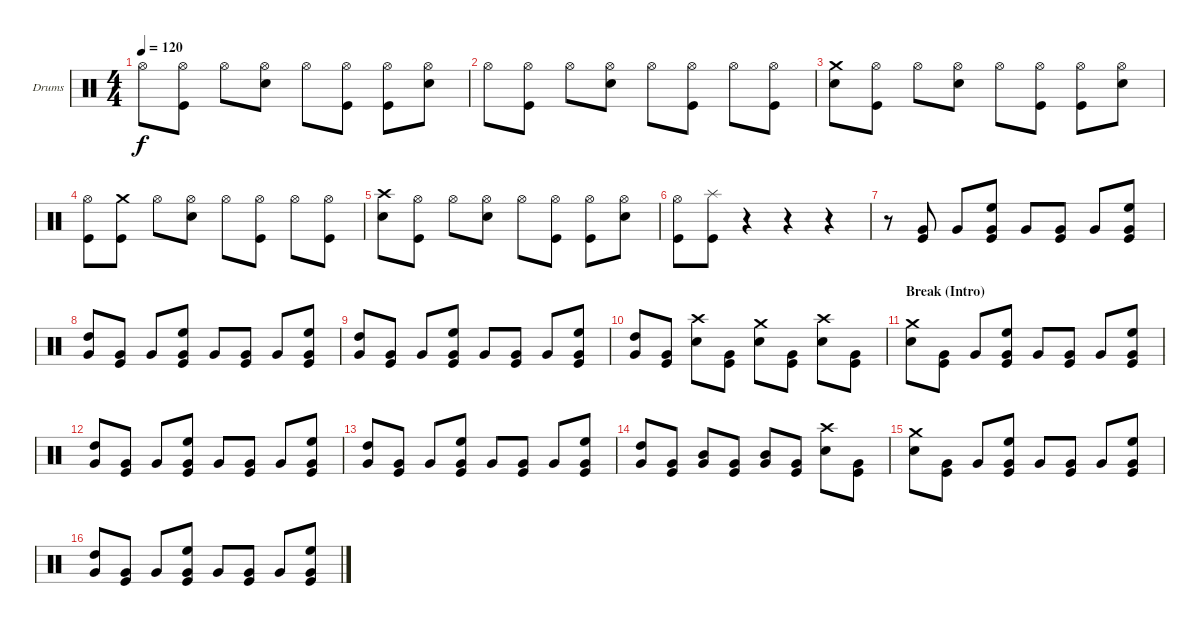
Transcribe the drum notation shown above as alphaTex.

\bracketExtendMode groupsimilarinstruments
\firstSystemTrackNameOrientation horizontal
\otherSystemsTrackNameOrientation horizontal
\track ("Drumkit" "Drums") {instrument percussion}
\staff {score}
\articulation defaults
\ts (4 4)
\tempo 120
\clef neutral
\ks c "Hi-Hat (open)".8{dy f}
("Hi-Hat (open)" "Kick (hit)").8 "Hi-Hat (open)".8 ("Hi-Hat (open)" "Snare (hit) 2").8 "Hi-Hat (open)".8 ("Hi-Hat (open)" "Kick (hit)").8 ("Hi-Hat (open)" "Kick (hit)").8 ("Hi-Hat (open)" "Snare (hit) 2").8 |
"Hi-Hat (open)".8 ("Hi-Hat (open)" "Kick (hit)").8 "Hi-Hat (open)".8 ("Hi-Hat (open)" "Snare (hit) 2").8 "Hi-Hat (open)".8 ("Hi-Hat (open)" "Kick (hit)").8 "Hi-Hat (open)".8 ("Hi-Hat (open)" "Kick (hit)").8 |
("Crash medium (hit)" "Snare (hit) 2").8 ("Hi-Hat (open)" "Kick (hit)").8 "Hi-Hat (open)".8 ("Hi-Hat (open)" "Snare (hit) 2").8 "Hi-Hat (open)".8 ("Hi-Hat (open)" "Kick (hit)").8 ("Hi-Hat (open)" "Kick (hit)").8 ("Hi-Hat (open)" "Snare (hit) 2").8 |
("Hi-Hat (open)" "Kick (hit)").8 ("Crash medium (hit)" "Kick (hit)").8 "Hi-Hat (open)".8 ("Hi-Hat (open)" "Snare (hit) 2").8 "Hi-Hat (open)".8 ("Hi-Hat (open)" "Kick (hit)").8 "Hi-Hat (open)".8 ("Hi-Hat (open)" "Kick (hit)").8 |
("Crash high (hit)" "Snare (hit) 2").8 ("Hi-Hat (open)" "Kick (hit)").8 "Hi-Hat (open)".8 ("Hi-Hat (open)" "Snare (hit) 2").8 "Hi-Hat (open)".8 ("Hi-Hat (open)" "Kick (hit)").8 ("Hi-Hat (open)" "Kick (hit)").8 ("Hi-Hat (open)" "Snare (hit) 2").8 |
("Hi-Hat (open)" "Kick (hit)").8 ("Splash (hit)" "Kick (hit)").8 r.4 r.4 r.4 |
r.8 ("Very Low Tom (hit)" "Kick (hit)").8 "Very Low Tom (hit)".8 ("High Floor Tom (hit)" "Very Low Tom (hit)" "Kick (hit)").8 "Very Low Tom (hit)".8 ("Very Low Tom (hit)" "Kick (hit)").8 "Very Low Tom (hit)".8 ("High Floor Tom (hit)" "Very Low Tom (hit)" "Kick (hit)").8 |
("High Tom (hit)" "Very Low Tom (hit)").8 ("Very Low Tom (hit)" "Kick (hit)").8 "Very Low Tom (hit)".8 ("High Floor Tom (hit)" "Very Low Tom (hit)" "Kick (hit)").8 "Very Low Tom (hit)".8 ("Very Low Tom (hit)" "Kick (hit)").8 "Very Low Tom (hit)".8 ("High Floor Tom (hit)" "Very Low Tom (hit)" "Kick (hit)").8 |
("High Tom (hit)" "Very Low Tom (hit)").8 ("Very Low Tom (hit)" "Kick (hit)").8 "Very Low Tom (hit)".8 ("High Floor Tom (hit)" "Very Low Tom (hit)" "Kick (hit)").8 "Very Low Tom (hit)".8 ("Very Low Tom (hit)" "Kick (hit)").8 "Very Low Tom (hit)".8 ("High Floor Tom (hit)" "Very Low Tom (hit)" "Kick (hit)").8 |
("High Tom (hit)" "Very Low Tom (hit)").8 ("Very Low Tom (hit)" "Kick (hit)").8 ("Crash high (hit)" "Snare (hit) 2").8 ("Very Low Tom (hit)" "Kick (hit)").8 ("Crash medium (hit)" "Snare (hit) 2").8 ("Very Low Tom (hit)" "Kick (hit)").8 ("Crash high (hit)" "Snare (hit) 2").8 ("Very Low Tom (hit)" "Kick (hit)").8 |
\section ("" "Break (Intro)")
("Crash medium (hit)" "Snare (hit) 2").8 ("Very Low Tom (hit)" "Kick (hit)").8 "Very Low Tom (hit)".8 ("High Floor Tom (hit)" "Very Low Tom (hit)" "Kick (hit)").8 "Very Low Tom (hit)".8 ("Very Low Tom (hit)" "Kick (hit)").8 "Very Low Tom (hit)".8 ("High Floor Tom (hit)" "Very Low Tom (hit)" "Kick (hit)").8 |
("High Tom (hit)" "Very Low Tom (hit)").8 ("Very Low Tom (hit)" "Kick (hit)").8 "Very Low Tom (hit)".8 ("High Floor Tom (hit)" "Very Low Tom (hit)" "Kick (hit)").8 "Very Low Tom (hit)".8 ("Very Low Tom (hit)" "Kick (hit)").8 "Very Low Tom (hit)".8 ("High Floor Tom (hit)" "Very Low Tom (hit)" "Kick (hit)").8 |
("High Tom (hit)" "Very Low Tom (hit)").8 ("Very Low Tom (hit)" "Kick (hit)").8 "Very Low Tom (hit)".8 ("High Floor Tom (hit)" "Very Low Tom (hit)" "Kick (hit)").8 "Very Low Tom (hit)".8 ("Very Low Tom (hit)" "Kick (hit)").8 "Very Low Tom (hit)".8 ("High Floor Tom (hit)" "Very Low Tom (hit)" "Kick (hit)").8 |
("High Tom (hit)" "Very Low Tom (hit)").8 ("Very Low Tom (hit)" "Kick (hit)").8 ("Mid Tom (hit)" "Very Low Tom (hit)").8 ("Very Low Tom (hit)" "Kick (hit)").8 ("Mid Tom (hit)" "Very Low Tom (hit)").8 ("Very Low Tom (hit)" "Kick (hit)").8 ("Crash high (hit)" "Snare (hit) 2").8 ("Very Low Tom (hit)" "Kick (hit)").8 |
("Crash medium (hit)" "Snare (hit) 2").8 ("Very Low Tom (hit)" "Kick (hit)").8 "Very Low Tom (hit)".8 ("High Floor Tom (hit)" "Very Low Tom (hit)" "Kick (hit)").8 "Very Low Tom (hit)".8 ("Very Low Tom (hit)" "Kick (hit)").8 "Very Low Tom (hit)".8 ("High Floor Tom (hit)" "Very Low Tom (hit)" "Kick (hit)").8 |
("High Tom (hit)" "Very Low Tom (hit)").8 ("Very Low Tom (hit)" "Kick (hit)").8 "Very Low Tom (hit)".8 ("High Floor Tom (hit)" "Very Low Tom (hit)" "Kick (hit)").8 "Very Low Tom (hit)".8 ("Very Low Tom (hit)" "Kick (hit)").8 "Very Low Tom (hit)".8 ("High Floor Tom (hit)" "Very Low Tom (hit)" "Kick (hit)").8
